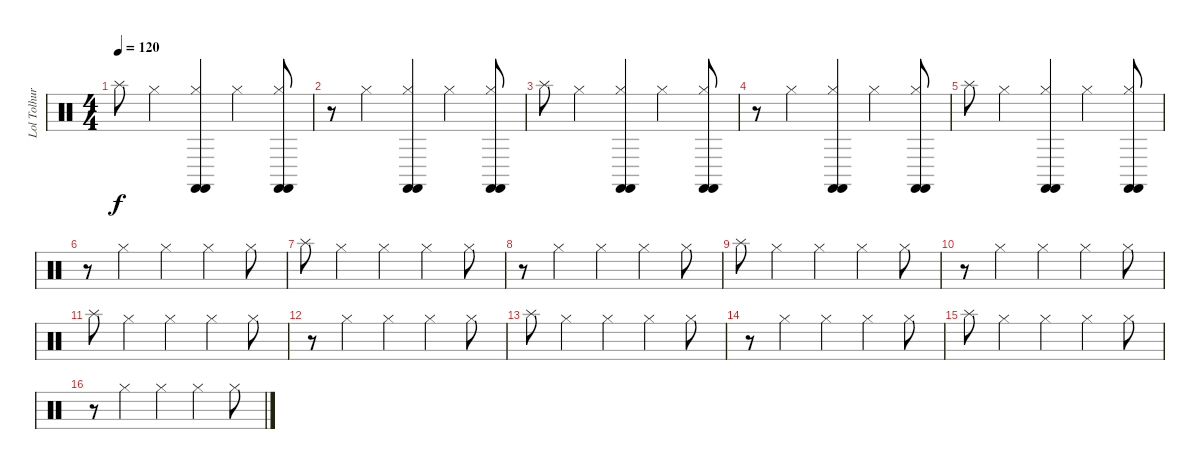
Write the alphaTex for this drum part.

\track ("Lol Tolhurst" "Lol Tolhur") {instrument percussion}
\staff {score}
\articulation defaults
\ts (4 4)
\tempo 120
\clef neutral
\ks c "Splash (hit)".8{dy f} "Hi-Hat (closed)".4
("Hi-Hat (closed)" "Castanets (hit)" "Castanets (hit)").4 "Hi-Hat (closed)".4 ("Hi-Hat (closed)" "Castanets (hit)" "Castanets (hit)").8 |
r.8 "Hi-Hat (closed)".4 ("Hi-Hat (closed)" "Castanets (hit)" "Castanets (hit)").4 "Hi-Hat (closed)".4 ("Hi-Hat (closed)" "Castanets (hit)" "Castanets (hit)").8 |
"Splash (hit)".8 "Hi-Hat (closed)".4 ("Hi-Hat (closed)" "Castanets (hit)" "Castanets (hit)").4 "Hi-Hat (closed)".4 ("Hi-Hat (closed)" "Castanets (hit)" "Castanets (hit)").8 |
r.8 "Hi-Hat (closed)".4 ("Hi-Hat (closed)" "Castanets (hit)" "Castanets (hit)").4 "Hi-Hat (closed)".4 ("Hi-Hat (closed)" "Castanets (hit)" "Castanets (hit)").8 |
"Splash (hit)".8 "Hi-Hat (closed)".4 ("Hi-Hat (closed)" "Castanets (hit)" "Castanets (hit)").4 "Hi-Hat (closed)".4 ("Hi-Hat (closed)" "Castanets (hit)" "Castanets (hit)").8 |
r.8 "Hi-Hat (closed)".4 "Hi-Hat (closed)".4 "Hi-Hat (closed)".4 "Hi-Hat (closed)".8 |
"Splash (hit)".8 "Hi-Hat (closed)".4 "Hi-Hat (closed)".4 "Hi-Hat (closed)".4 "Hi-Hat (closed)".8 |
r.8 "Hi-Hat (closed)".4 "Hi-Hat (closed)".4 "Hi-Hat (closed)".4 "Hi-Hat (closed)".8 |
"Splash (hit)".8 "Hi-Hat (closed)".4 "Hi-Hat (closed)".4 "Hi-Hat (closed)".4 "Hi-Hat (closed)".8 |
r.8 "Hi-Hat (closed)".4 "Hi-Hat (closed)".4 "Hi-Hat (closed)".4 "Hi-Hat (closed)".8 |
"Splash (hit)".8 "Hi-Hat (closed)".4 "Hi-Hat (closed)".4 "Hi-Hat (closed)".4 "Hi-Hat (closed)".8 |
r.8 "Hi-Hat (closed)".4 "Hi-Hat (closed)".4 "Hi-Hat (closed)".4 "Hi-Hat (closed)".8 |
"Splash (hit)".8 "Hi-Hat (closed)".4 "Hi-Hat (closed)".4 "Hi-Hat (closed)".4 "Hi-Hat (closed)".8 |
r.8 "Hi-Hat (closed)".4 "Hi-Hat (closed)".4 "Hi-Hat (closed)".4 "Hi-Hat (closed)".8 |
"Splash (hit)".8 "Hi-Hat (closed)".4 "Hi-Hat (closed)".4 "Hi-Hat (closed)".4 "Hi-Hat (closed)".8 |
r.8 "Hi-Hat (closed)".4 "Hi-Hat (closed)".4 "Hi-Hat (closed)".4 "Hi-Hat (closed)".8
